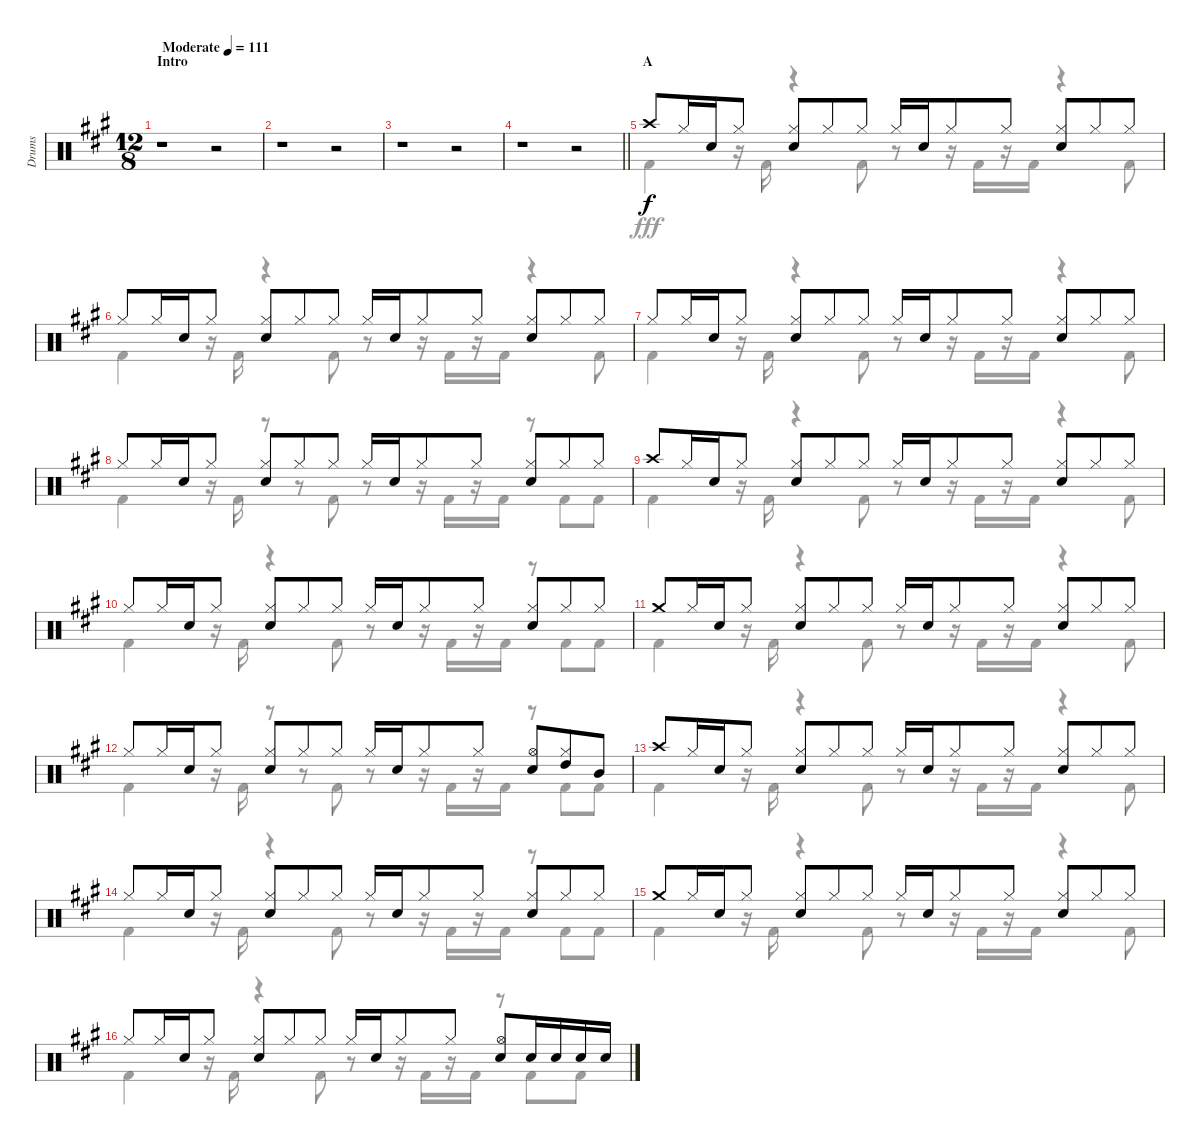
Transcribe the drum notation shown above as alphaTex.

\track ("Drums" "Drums") {instrument percussion}
\staff {score}
\articulation defaults
\voice
\ts (12 8)
\section ("" "Intro")
\tempo (111 "Moderate")
\clef neutral
\ks a
r.1{dy f} r.2 |
r.1 r.2 |
r.1 r.2 |
\barLineRight lightlight
r.1 r.2 |
\section ("" "A")
"Crash high (hit)".8 "Hi-Hat (closed)".16 "Snare (hit) 2".16 "Hi-Hat (closed)".8 ("Hi-Hat (closed)" "Snare (hit) 2").8 "Hi-Hat (closed)".8 "Hi-Hat (closed)".8 "Hi-Hat (closed)".16 "Snare (hit) 2".16 "Hi-Hat (closed)".8 "Hi-Hat (closed)".8 ("Hi-Hat (closed)" "Snare (hit) 2").8 "Hi-Hat (closed)".8 "Hi-Hat (closed)".8 |
"Hi-Hat (closed)".8 "Hi-Hat (closed)".16 "Snare (hit) 2".16 "Hi-Hat (closed)".8 ("Hi-Hat (closed)" "Snare (hit) 2").8 "Hi-Hat (closed)".8 "Hi-Hat (closed)".8 "Hi-Hat (closed)".16 "Snare (hit) 2".16 "Hi-Hat (closed)".8 "Hi-Hat (closed)".8 ("Hi-Hat (closed)" "Snare (hit) 2").8 "Hi-Hat (closed)".8 "Hi-Hat (closed)".8 |
"Hi-Hat (closed)".8 "Hi-Hat (closed)".16 "Snare (hit) 2".16 "Hi-Hat (closed)".8 ("Hi-Hat (closed)" "Snare (hit) 2").8 "Hi-Hat (closed)".8 "Hi-Hat (closed)".8 "Hi-Hat (closed)".16 "Snare (hit) 2".16 "Hi-Hat (closed)".8 "Hi-Hat (closed)".8 ("Hi-Hat (closed)" "Snare (hit) 2").8 "Hi-Hat (closed)".8 "Hi-Hat (closed)".8 |
"Hi-Hat (closed)".8 "Hi-Hat (closed)".16 "Snare (hit) 2".16 "Hi-Hat (closed)".8 ("Hi-Hat (closed)" "Snare (hit) 2").8 "Hi-Hat (closed)".8 "Hi-Hat (closed)".8 "Hi-Hat (closed)".16 "Snare (hit) 2".16 "Hi-Hat (closed)".8 "Hi-Hat (closed)".8 ("Hi-Hat (closed)" "Snare (hit) 2").8 "Hi-Hat (closed)".8 "Hi-Hat (closed)".8 |
"Crash high (hit)".8 "Hi-Hat (closed)".16 "Snare (hit) 2".16 "Hi-Hat (closed)".8 ("Hi-Hat (closed)" "Snare (hit) 2").8 "Hi-Hat (closed)".8 "Hi-Hat (closed)".8 "Hi-Hat (closed)".16 "Snare (hit) 2".16 "Hi-Hat (closed)".8 "Hi-Hat (closed)".8 ("Hi-Hat (closed)" "Snare (hit) 2").8 "Hi-Hat (closed)".8 "Hi-Hat (closed)".8 |
"Hi-Hat (closed)".8 "Hi-Hat (closed)".16 "Snare (hit) 2".16 "Hi-Hat (closed)".8 ("Hi-Hat (closed)" "Snare (hit) 2").8 "Hi-Hat (closed)".8 "Hi-Hat (closed)".8 "Hi-Hat (closed)".16 "Snare (hit) 2".16 "Hi-Hat (closed)".8 "Hi-Hat (closed)".8 ("Hi-Hat (closed)" "Snare (hit) 2").8 "Hi-Hat (closed)".8 "Hi-Hat (closed)".8 |
"Crash medium (hit)".8 "Hi-Hat (closed)".16 "Snare (hit) 2".16 "Hi-Hat (closed)".8 ("Hi-Hat (closed)" "Snare (hit) 2").8 "Hi-Hat (closed)".8 "Hi-Hat (closed)".8 "Hi-Hat (closed)".16 "Snare (hit) 2".16 "Hi-Hat (closed)".8 "Hi-Hat (closed)".8 ("Hi-Hat (closed)" "Snare (hit) 2").8 "Hi-Hat (closed)".8 "Hi-Hat (closed)".8 |
"Hi-Hat (closed)".8 "Hi-Hat (closed)".16 "Snare (hit) 2".16 "Hi-Hat (closed)".8 ("Hi-Hat (closed)" "Snare (hit) 2").8 "Hi-Hat (closed)".8 "Hi-Hat (closed)".8 "Hi-Hat (closed)".16 "Snare (hit) 2".16 "Hi-Hat (closed)".8 "Hi-Hat (closed)".8 ("Hi-Hat (open)" "Snare (hit) 2").8 ("Hi-Hat (closed)" "High Tom (hit)").8 "Mid Tom (hit)".8 |
"Crash high (hit)".8 "Hi-Hat (closed)".16 "Snare (hit) 2".16 "Hi-Hat (closed)".8 ("Hi-Hat (closed)" "Snare (hit) 2").8 "Hi-Hat (closed)".8 "Hi-Hat (closed)".8 "Hi-Hat (closed)".16 "Snare (hit) 2".16 "Hi-Hat (closed)".8 "Hi-Hat (closed)".8 ("Hi-Hat (closed)" "Snare (hit) 2").8 "Hi-Hat (closed)".8 "Hi-Hat (closed)".8 |
"Hi-Hat (closed)".8 "Hi-Hat (closed)".16 "Snare (hit) 2".16 "Hi-Hat (closed)".8 ("Hi-Hat (closed)" "Snare (hit) 2").8 "Hi-Hat (closed)".8 "Hi-Hat (closed)".8 "Hi-Hat (closed)".16 "Snare (hit) 2".16 "Hi-Hat (closed)".8 "Hi-Hat (closed)".8 ("Hi-Hat (closed)" "Snare (hit) 2").8 "Hi-Hat (closed)".8 "Hi-Hat (closed)".8 |
"Crash medium (hit)".8 "Hi-Hat (closed)".16 "Snare (hit) 2".16 "Hi-Hat (closed)".8 ("Hi-Hat (closed)" "Snare (hit) 2").8 "Hi-Hat (closed)".8 "Hi-Hat (closed)".8 "Hi-Hat (closed)".16 "Snare (hit) 2".16 "Hi-Hat (closed)".8 "Hi-Hat (closed)".8 ("Hi-Hat (closed)" "Snare (hit) 2").8 "Hi-Hat (closed)".8 "Hi-Hat (closed)".8 |
"Hi-Hat (closed)".8 "Hi-Hat (closed)".16 "Snare (hit) 2".16 "Hi-Hat (closed)".8 ("Hi-Hat (closed)" "Snare (hit) 2").8 "Hi-Hat (closed)".8 "Hi-Hat (closed)".8 "Hi-Hat (closed)".16 "Snare (hit) 2".16 "Hi-Hat (closed)".8 "Hi-Hat (closed)".8 ("Hi-Hat (open)" "Snare (hit) 2").8 "Snare (hit) 2".16 "Snare (hit) 2".16 "Snare (hit) 2".16 "Snare (hit) 2".16
\voice
\clef neutral
\ottava regular
\simile none
\ks a
r.1{dy fff} r.2 |
r.1 r.2 |
r.1 r.2 |
\barLineRight lightlight
r.1 r.2 |
"Kick (hit) 2".4 r.16 "Kick (hit) 2".16 r.4 "Kick (hit) 2".8 r.8 r.16 "Kick (hit) 2".16 r.16 "Kick (hit) 2".16 r.4 "Kick (hit) 2".8 |
"Kick (hit) 2".4 r.16 "Kick (hit) 2".16 r.4 "Kick (hit) 2".8 r.8 r.16 "Kick (hit) 2".16 r.16 "Kick (hit) 2".16 r.4 "Kick (hit) 2".8 |
"Kick (hit) 2".4 r.16 "Kick (hit) 2".16 r.4 "Kick (hit) 2".8 r.8 r.16 "Kick (hit) 2".16 r.16 "Kick (hit) 2".16 r.4 "Kick (hit) 2".8 |
"Kick (hit) 2".4 r.16 "Kick (hit) 2".16 r.8 r.8 "Kick (hit) 2".8 r.8 r.16 "Kick (hit) 2".16 r.16 "Kick (hit) 2".16 r.8 "Kick (hit) 2".8 "Kick (hit) 2".8 |
"Kick (hit) 2".4 r.16 "Kick (hit) 2".16 r.4 "Kick (hit) 2".8 r.8 r.16 "Kick (hit) 2".16 r.16 "Kick (hit) 2".16 r.4 "Kick (hit) 2".8 |
"Kick (hit) 2".4 r.16 "Kick (hit) 2".16 r.4 "Kick (hit) 2".8 r.8 r.16 "Kick (hit) 2".16 r.16 "Kick (hit) 2".16 r.8 "Kick (hit) 2".8 "Kick (hit) 2".8 |
"Kick (hit) 2".4 r.16 "Kick (hit) 2".16 r.4 "Kick (hit) 2".8 r.8 r.16 "Kick (hit) 2".16 r.16 "Kick (hit) 2".16 r.4 "Kick (hit) 2".8 |
"Kick (hit) 2".4 r.16 "Kick (hit) 2".16 r.8 r.8 "Kick (hit) 2".8 r.8 r.16 "Kick (hit) 2".16 r.16 "Kick (hit) 2".16 r.8 "Kick (hit) 2".8 "Kick (hit) 2".8 |
"Kick (hit) 2".4 r.16 "Kick (hit) 2".16 r.4 "Kick (hit) 2".8 r.8 r.16 "Kick (hit) 2".16 r.16 "Kick (hit) 2".16 r.4 "Kick (hit) 2".8 |
"Kick (hit) 2".4 r.16 "Kick (hit) 2".16 r.4 "Kick (hit) 2".8 r.8 r.16 "Kick (hit) 2".16 r.16 "Kick (hit) 2".16 r.8 "Kick (hit) 2".8 "Kick (hit) 2".8 |
"Kick (hit) 2".4 r.16 "Kick (hit) 2".16 r.4 "Kick (hit) 2".8 r.8 r.16 "Kick (hit) 2".16 r.16 "Kick (hit) 2".16 r.4 "Kick (hit) 2".8 |
"Kick (hit) 2".4 r.16 "Kick (hit) 2".16 r.4 "Kick (hit) 2".8 r.8 r.16 "Kick (hit) 2".16 r.16 "Kick (hit) 2".16 r.8 "Kick (hit) 2".8 "Kick (hit) 2".8
